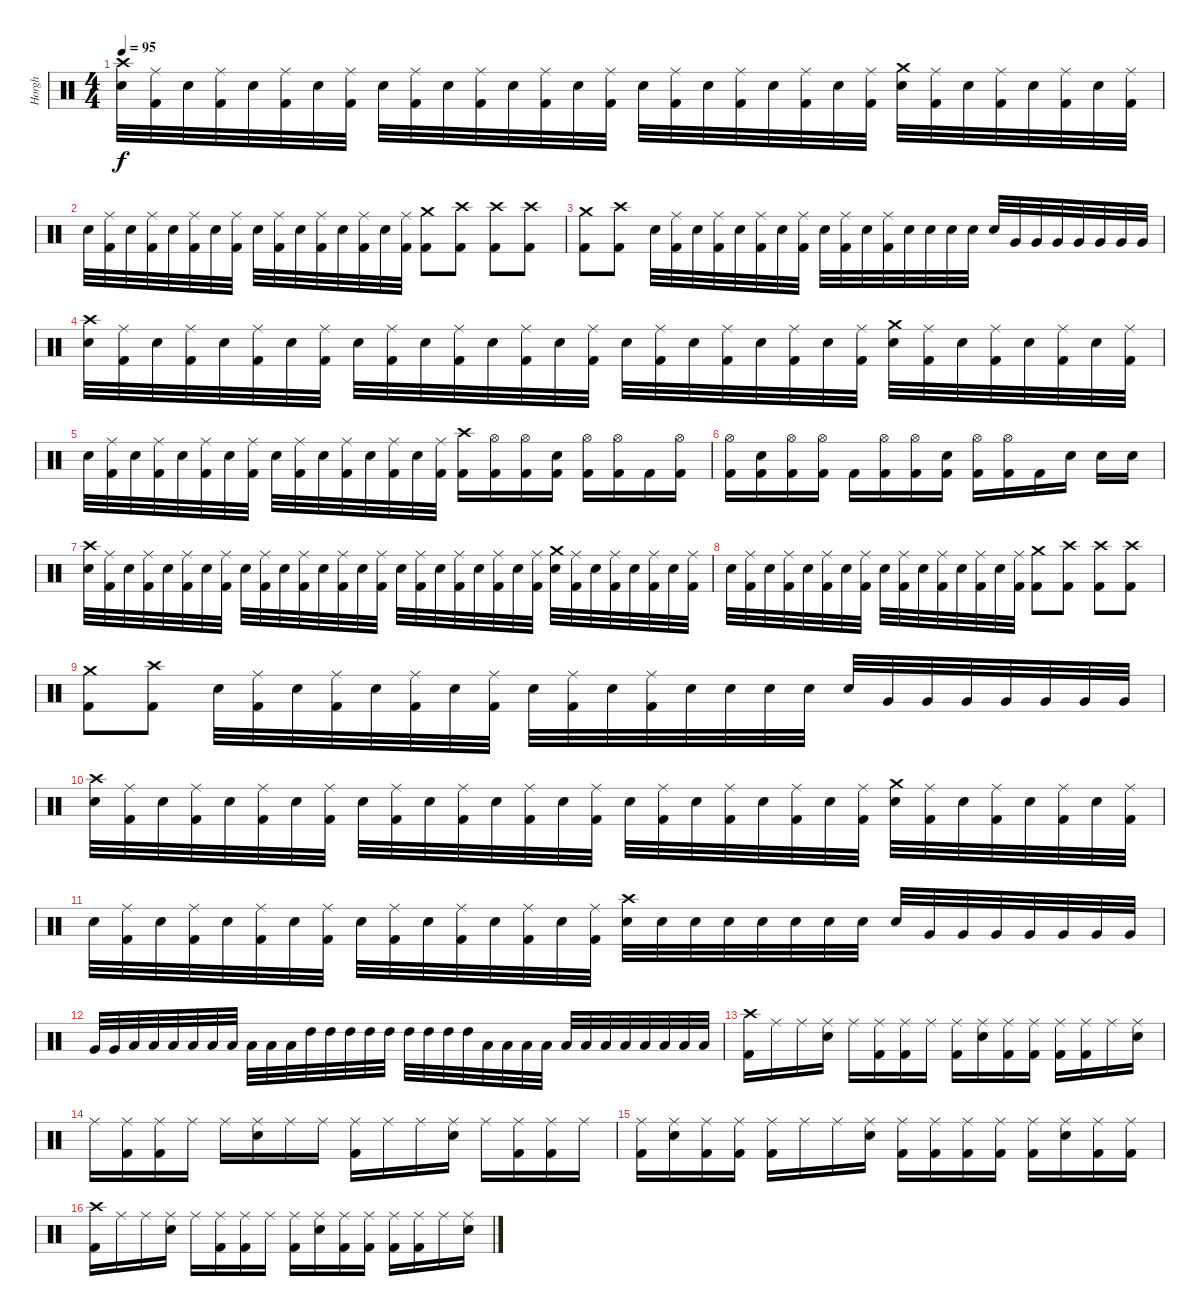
\track ("Horgh" "Horgh") {instrument percussion}
\staff {score}
\articulation defaults
\ts (4 4)
\tempo 95
\clef neutral
\ks c
("Crash high (hit)" "Snare (hit) 2").32{dy f} ("Ride (middle)" "Kick (hit) 2").32 "Snare (hit) 2".32 ("Ride (middle)" "Kick (hit) 2").32 "Snare (hit) 2".32 ("Ride (middle)" "Kick (hit) 2").32 "Snare (hit) 2".32 ("Ride (middle)" "Kick (hit) 2").32 "Snare (hit) 2".32 ("Ride (middle)" "Kick (hit) 2").32 "Snare (hit) 2".32 ("Ride (middle)" "Kick (hit) 2").32 "Snare (hit) 2".32 ("Ride (middle)" "Kick (hit) 2").32 "Snare (hit) 2".32 ("Ride (middle)" "Kick (hit) 2").32 "Snare (hit) 2".32 ("Ride (middle)" "Kick (hit) 2").32 "Snare (hit) 2".32 ("Ride (middle)" "Kick (hit) 2").32 "Snare (hit) 2".32 ("Ride (middle)" "Kick (hit) 2").32 "Snare (hit) 2".32 ("Ride (middle)" "Kick (hit) 2").32 ("Crash medium (hit)" "Snare (hit) 2").32 ("Ride (middle)" "Kick (hit) 2").32 "Snare (hit) 2".32 ("Ride (middle)" "Kick (hit) 2").32 "Snare (hit) 2".32 ("Ride (middle)" "Kick (hit) 2").32 "Snare (hit) 2".32 ("Ride (middle)" "Kick (hit) 2").32 |
"Snare (hit) 2".32 ("Ride (middle)" "Kick (hit) 2").32 "Snare (hit) 2".32 ("Ride (middle)" "Kick (hit) 2").32 "Snare (hit) 2".32 ("Ride (middle)" "Kick (hit) 2").32 "Snare (hit) 2".32 ("Ride (middle)" "Kick (hit) 2").32 "Snare (hit) 2".32 ("Ride (middle)" "Kick (hit) 2").32 "Snare (hit) 2".32 ("Ride (middle)" "Kick (hit) 2").32 "Snare (hit) 2".32 ("Ride (middle)" "Kick (hit) 2").32 "Snare (hit) 2".32 ("Ride (middle)" "Kick (hit) 2").32 ("Crash medium (hit)" "Kick (hit) 2").8 ("Crash high (hit)" "Kick (hit) 2").8 ("Crash high (hit)" "Kick (hit) 2").8 ("Crash high (hit)" "Kick (hit) 2").8 |
("Crash medium (hit)" "Kick (hit) 2").8 ("Crash high (hit)" "Kick (hit) 2").8 "Snare (hit) 2".32 ("Ride (middle)" "Kick (hit) 2").32 "Snare (hit) 2".32 ("Ride (middle)" "Kick (hit) 2").32 "Snare (hit) 2".32 ("Ride (middle)" "Kick (hit) 2").32 "Snare (hit) 2".32 ("Ride (middle)" "Kick (hit) 2").32 "Snare (hit) 2".32 ("Ride (middle)" "Kick (hit) 2").32 "Snare (hit) 2".32 ("Ride (middle)" "Kick (hit) 2").32 "Snare (hit) 2".32 "Snare (hit) 2".32 "Snare (hit) 2".32 "Snare (hit) 2".32 "Snare (hit) 2".32 "Very Low Tom (hit)".32 "Very Low Tom (hit)".32 "Very Low Tom (hit)".32 "Very Low Tom (hit)".32 "Very Low Tom (hit)".32 "Very Low Tom (hit)".32 "Very Low Tom (hit)".32 |
("Crash high (hit)" "Snare (hit) 2").32 ("Ride (middle)" "Kick (hit) 2").32 "Snare (hit) 2".32 ("Ride (middle)" "Kick (hit) 2").32 "Snare (hit) 2".32 ("Ride (middle)" "Kick (hit) 2").32 "Snare (hit) 2".32 ("Ride (middle)" "Kick (hit) 2").32 "Snare (hit) 2".32 ("Ride (middle)" "Kick (hit) 2").32 "Snare (hit) 2".32 ("Ride (middle)" "Kick (hit) 2").32 "Snare (hit) 2".32 ("Ride (middle)" "Kick (hit) 2").32 "Snare (hit) 2".32 ("Ride (middle)" "Kick (hit) 2").32 "Snare (hit) 2".32 ("Ride (middle)" "Kick (hit) 2").32 "Snare (hit) 2".32 ("Ride (middle)" "Kick (hit) 2").32 "Snare (hit) 2".32 ("Ride (middle)" "Kick (hit) 2").32 "Snare (hit) 2".32 ("Ride (middle)" "Kick (hit) 2").32 ("Crash medium (hit)" "Snare (hit) 2").32 ("Ride (middle)" "Kick (hit) 2").32 "Snare (hit) 2".32 ("Ride (middle)" "Kick (hit) 2").32 "Snare (hit) 2".32 ("Ride (middle)" "Kick (hit) 2").32 "Snare (hit) 2".32 ("Ride (middle)" "Kick (hit) 2").32 |
"Snare (hit) 2".32 ("Ride (middle)" "Kick (hit) 2").32 "Snare (hit) 2".32 ("Ride (middle)" "Kick (hit) 2").32 "Snare (hit) 2".32 ("Ride (middle)" "Kick (hit) 2").32 "Snare (hit) 2".32 ("Ride (middle)" "Kick (hit) 2").32 "Snare (hit) 2".32 ("Ride (middle)" "Kick (hit) 2").32 "Snare (hit) 2".32 ("Ride (middle)" "Kick (hit) 2").32 "Snare (hit) 2".32 ("Ride (middle)" "Kick (hit) 2").32 "Snare (hit) 2".32 ("Ride (middle)" "Kick (hit) 2").32 ("Crash high (hit)" "Kick (hit) 2").16 ("Hi-Hat (open)" "Kick (hit) 2").16 ("Hi-Hat (open)" "Kick (hit) 2").16 ("Snare (hit) 2" "Kick (hit) 2").16 ("Hi-Hat (open)" "Kick (hit) 2").16 ("Hi-Hat (open)" "Kick (hit) 2").16 "Kick (hit) 2".16 ("Hi-Hat (open)" "Kick (hit) 2").16 |
("Hi-Hat (open)" "Kick (hit) 2").16 ("Snare (hit) 2" "Kick (hit) 2").16 ("Hi-Hat (open)" "Kick (hit) 2").16 ("Hi-Hat (open)" "Kick (hit) 2").16 "Kick (hit) 2".16 ("Hi-Hat (open)" "Kick (hit) 2").16 ("Hi-Hat (open)" "Kick (hit) 2").16 ("Snare (hit) 2" "Kick (hit) 2").16 ("Hi-Hat (open)" "Kick (hit) 2").16 ("Hi-Hat (open)" "Kick (hit) 2").16 "Kick (hit) 2".16 "Snare (hit) 2".16 "Snare (hit) 2".16 "Snare (hit) 2".16 |
("Crash high (hit)" "Snare (hit) 2").32 ("Ride (middle)" "Kick (hit) 2").32 "Snare (hit) 2".32 ("Ride (middle)" "Kick (hit) 2").32 "Snare (hit) 2".32 ("Ride (middle)" "Kick (hit) 2").32 "Snare (hit) 2".32 ("Ride (middle)" "Kick (hit) 2").32 "Snare (hit) 2".32 ("Ride (middle)" "Kick (hit) 2").32 "Snare (hit) 2".32 ("Ride (middle)" "Kick (hit) 2").32 "Snare (hit) 2".32 ("Ride (middle)" "Kick (hit) 2").32 "Snare (hit) 2".32 ("Ride (middle)" "Kick (hit) 2").32 "Snare (hit) 2".32 ("Ride (middle)" "Kick (hit) 2").32 "Snare (hit) 2".32 ("Ride (middle)" "Kick (hit) 2").32 "Snare (hit) 2".32 ("Ride (middle)" "Kick (hit) 2").32 "Snare (hit) 2".32 ("Ride (middle)" "Kick (hit) 2").32 ("Crash medium (hit)" "Snare (hit) 2").32 ("Ride (middle)" "Kick (hit) 2").32 "Snare (hit) 2".32 ("Ride (middle)" "Kick (hit) 2").32 "Snare (hit) 2".32 ("Ride (middle)" "Kick (hit) 2").32 "Snare (hit) 2".32 ("Ride (middle)" "Kick (hit) 2").32 |
"Snare (hit) 2".32 ("Ride (middle)" "Kick (hit) 2").32 "Snare (hit) 2".32 ("Ride (middle)" "Kick (hit) 2").32 "Snare (hit) 2".32 ("Ride (middle)" "Kick (hit) 2").32 "Snare (hit) 2".32 ("Ride (middle)" "Kick (hit) 2").32 "Snare (hit) 2".32 ("Ride (middle)" "Kick (hit) 2").32 "Snare (hit) 2".32 ("Ride (middle)" "Kick (hit) 2").32 "Snare (hit) 2".32 ("Ride (middle)" "Kick (hit) 2").32 "Snare (hit) 2".32 ("Ride (middle)" "Kick (hit) 2").32 ("Crash medium (hit)" "Kick (hit) 2").8 ("Crash high (hit)" "Kick (hit) 2").8 ("Crash high (hit)" "Kick (hit) 2").8 ("Crash high (hit)" "Kick (hit) 2").8 |
("Crash medium (hit)" "Kick (hit) 2").8 ("Crash high (hit)" "Kick (hit) 2").8 "Snare (hit) 2".32 ("Ride (middle)" "Kick (hit) 2").32 "Snare (hit) 2".32 ("Ride (middle)" "Kick (hit) 2").32 "Snare (hit) 2".32 ("Ride (middle)" "Kick (hit) 2").32 "Snare (hit) 2".32 ("Ride (middle)" "Kick (hit) 2").32 "Snare (hit) 2".32 ("Ride (middle)" "Kick (hit) 2").32 "Snare (hit) 2".32 ("Ride (middle)" "Kick (hit) 2").32 "Snare (hit) 2".32 "Snare (hit) 2".32 "Snare (hit) 2".32 "Snare (hit) 2".32 "Snare (hit) 2".32 "Very Low Tom (hit)".32 "Very Low Tom (hit)".32 "Very Low Tom (hit)".32 "Very Low Tom (hit)".32 "Very Low Tom (hit)".32 "Very Low Tom (hit)".32 "Very Low Tom (hit)".32 |
("Crash high (hit)" "Snare (hit) 2").32 ("Ride (middle)" "Kick (hit) 2").32 "Snare (hit) 2".32 ("Ride (middle)" "Kick (hit) 2").32 "Snare (hit) 2".32 ("Ride (middle)" "Kick (hit) 2").32 "Snare (hit) 2".32 ("Ride (middle)" "Kick (hit) 2").32 "Snare (hit) 2".32 ("Ride (middle)" "Kick (hit) 2").32 "Snare (hit) 2".32 ("Ride (middle)" "Kick (hit) 2").32 "Snare (hit) 2".32 ("Ride (middle)" "Kick (hit) 2").32 "Snare (hit) 2".32 ("Ride (middle)" "Kick (hit) 2").32 "Snare (hit) 2".32 ("Ride (middle)" "Kick (hit) 2").32 "Snare (hit) 2".32 ("Ride (middle)" "Kick (hit) 2").32 "Snare (hit) 2".32 ("Ride (middle)" "Kick (hit) 2").32 "Snare (hit) 2".32 ("Ride (middle)" "Kick (hit) 2").32 ("Crash medium (hit)" "Snare (hit) 2").32 ("Ride (middle)" "Kick (hit) 2").32 "Snare (hit) 2".32 ("Ride (middle)" "Kick (hit) 2").32 "Snare (hit) 2".32 ("Ride (middle)" "Kick (hit) 2").32 "Snare (hit) 2".32 ("Ride (middle)" "Kick (hit) 2").32 |
"Snare (hit) 2".32 ("Ride (middle)" "Kick (hit) 2").32 "Snare (hit) 2".32 ("Ride (middle)" "Kick (hit) 2").32 "Snare (hit) 2".32 ("Ride (middle)" "Kick (hit) 2").32 "Snare (hit) 2".32 ("Ride (middle)" "Kick (hit) 2").32 "Snare (hit) 2".32 ("Ride (middle)" "Kick (hit) 2").32 "Snare (hit) 2".32 ("Ride (middle)" "Kick (hit) 2").32 "Snare (hit) 2".32 ("Ride (middle)" "Kick (hit) 2").32 "Snare (hit) 2".32 ("Ride (middle)" "Kick (hit) 2").32 ("Crash high (hit)" "Snare (hit) 2").32 "Snare (hit) 2".32 "Snare (hit) 2".32 "Snare (hit) 2".32 "Snare (hit) 2".32 "Snare (hit) 2".32 "Snare (hit) 2".32 "Snare (hit) 2".32 "Snare (hit) 2".32 "Very Low Tom (hit)".32 "Very Low Tom (hit)".32 "Very Low Tom (hit)".32 "Very Low Tom (hit)".32 "Very Low Tom (hit)".32 "Very Low Tom (hit)".32 "Very Low Tom (hit)".32 |
"Very Low Tom (hit)".32 "Very Low Tom (hit)".32 "Low Tom (hit)".32 "Low Tom (hit)".32 "Low Tom (hit)".32 "Low Tom (hit)".32 "Low Tom (hit)".32 "Low Tom (hit)".32 "Low Tom (hit)".32 "Low Tom (hit)".32 "Low Tom (hit)".32 "High Tom (hit)".32 "High Tom (hit)".32 "High Tom (hit)".32 "High Tom (hit)".32 "High Tom (hit)".32 "High Tom (hit)".32 "High Tom (hit)".32 "High Tom (hit)".32 "High Tom (hit)".32 "Low Floor Tom (hit)".32 "Low Floor Tom (hit)".32 "Low Floor Tom (hit)".32 "Low Floor Tom (hit)".32 "Low Floor Tom (hit)".32 "Low Floor Tom (hit)".32 "Low Floor Tom (hit)".32 "Low Floor Tom (hit)".32 "Low Floor Tom (hit)".32 "Low Floor Tom (hit)".32 "Low Floor Tom (hit)".32 "Low Floor Tom (hit)".32 |
("Crash high (hit)" "Kick (hit) 2").16 "Ride (middle)".16 "Ride (middle)".16 ("Ride (middle)" "Snare (hit) 2").16 "Ride (middle)".16 ("Ride (middle)" "Kick (hit) 2").16 ("Ride (middle)" "Kick (hit) 2").16 "Ride (middle)".16 ("Ride (middle)" "Kick (hit) 2").16 ("Ride (middle)" "Snare (hit) 2").16 ("Ride (middle)" "Kick (hit) 2").16 ("Ride (middle)" "Kick (hit) 2").16 ("Ride (middle)" "Kick (hit) 2").16 ("Ride (middle)" "Kick (hit) 2").16 "Ride (middle)".16 ("Ride (middle)" "Snare (hit) 2").16 |
"Ride (middle)".16 ("Ride (middle)" "Kick (hit) 2").16 ("Ride (middle)" "Kick (hit) 2").16 "Ride (middle)".16 "Ride (middle)".16 ("Ride (middle)" "Snare (hit) 2").16 "Ride (middle)".16 "Ride (middle)".16 ("Ride (middle)" "Kick (hit) 2").16 "Ride (middle)".16 "Ride (middle)".16 ("Ride (middle)" "Snare (hit) 2").16 "Ride (middle)".16 ("Ride (middle)" "Kick (hit) 2").16 ("Ride (middle)" "Kick (hit) 2").16 "Ride (middle)".16 |
("Ride (middle)" "Kick (hit) 2").16 ("Ride (middle)" "Snare (hit) 2").16 ("Ride (middle)" "Kick (hit) 2").16 ("Ride (middle)" "Kick (hit) 2").16 ("Ride (middle)" "Kick (hit) 2").16 "Ride (middle)".16 "Ride (middle)".16 ("Ride (middle)" "Snare (hit) 2").16 ("Ride (middle)" "Kick (hit) 2").16 ("Ride (middle)" "Kick (hit) 2").16 ("Ride (middle)" "Kick (hit) 2").16 ("Ride (middle)" "Kick (hit) 2").16 ("Ride (middle)" "Kick (hit) 2").16 ("Ride (middle)" "Snare (hit) 2").16 ("Ride (middle)" "Kick (hit) 2").16 ("Ride (middle)" "Kick (hit) 2").16 |
("Crash high (hit)" "Kick (hit) 2").16 "Ride (middle)".16 "Ride (middle)".16 ("Ride (middle)" "Snare (hit) 2").16 "Ride (middle)".16 ("Ride (middle)" "Kick (hit) 2").16 ("Ride (middle)" "Kick (hit) 2").16 "Ride (middle)".16 ("Ride (middle)" "Kick (hit) 2").16 ("Ride (middle)" "Snare (hit) 2").16 ("Ride (middle)" "Kick (hit) 2").16 ("Ride (middle)" "Kick (hit) 2").16 ("Ride (middle)" "Kick (hit) 2").16 ("Ride (middle)" "Kick (hit) 2").16 "Ride (middle)".16 ("Ride (middle)" "Snare (hit) 2").16
